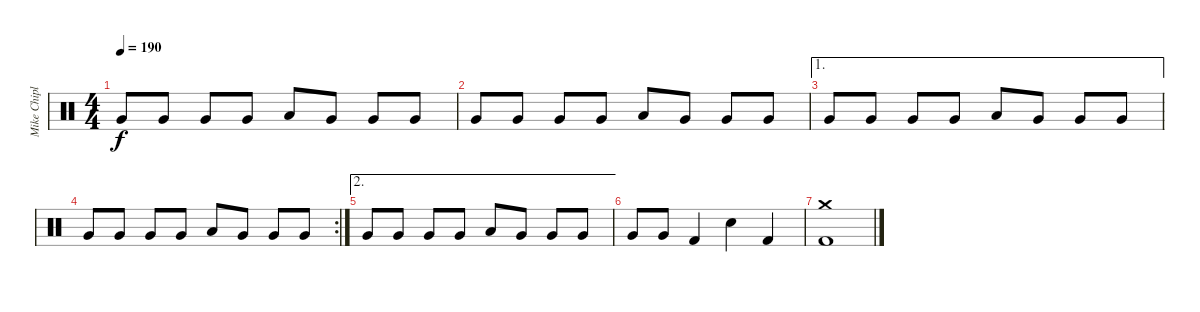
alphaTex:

\track ("Mike Chiplin" "Mike Chipl") {instrument percussion}
\staff {score}
\articulation defaults
\ts (4 4)
\tempo 190
\clef neutral
\ks c "Very Low Tom (hit)".8{dy f} "Very Low Tom (hit)".8 "Very Low Tom (hit)".8 "Very Low Tom (hit)".8 "Low Tom (hit)".8 "Very Low Tom (hit)".8 "Very Low Tom (hit)".8 "Very Low Tom (hit)".8
|
"Very Low Tom (hit)".8 "Very Low Tom (hit)".8 "Very Low Tom (hit)".8 "Very Low Tom (hit)".8 "Low Tom (hit)".8 "Very Low Tom (hit)".8 "Very Low Tom (hit)".8 "Very Low Tom (hit)".8 |
\ae 1 "Very Low Tom (hit)".8 "Very Low Tom (hit)".8 "Very Low Tom (hit)".8 "Very Low Tom (hit)".8 "Low Tom (hit)".8 "Very Low Tom (hit)".8 "Very Low Tom (hit)".8 "Very Low Tom (hit)".8
|
\rc 2 "Very Low Tom (hit)".8 "Very Low Tom (hit)".8 "Very Low Tom (hit)".8 "Very Low Tom (hit)".8 "Low Tom (hit)".8 "Very Low Tom (hit)".8 "Very Low Tom (hit)".8 "Very Low Tom (hit)".8
|
\ae 2 "Very Low Tom (hit)".8 "Very Low Tom (hit)".8 "Very Low Tom (hit)".8 "Very Low Tom (hit)".8 "Low Tom (hit)".8 "Very Low Tom (hit)".8 "Very Low Tom (hit)".8 "Very Low Tom (hit)".8
|
"Very Low Tom (hit)".8 "Very Low Tom (hit)".8 "Kick (hit) 2".4 "Snare (hit) 2".4 "Kick (hit) 2".4 |
("Kick (hit) 2" "Crash medium (hit)").1
